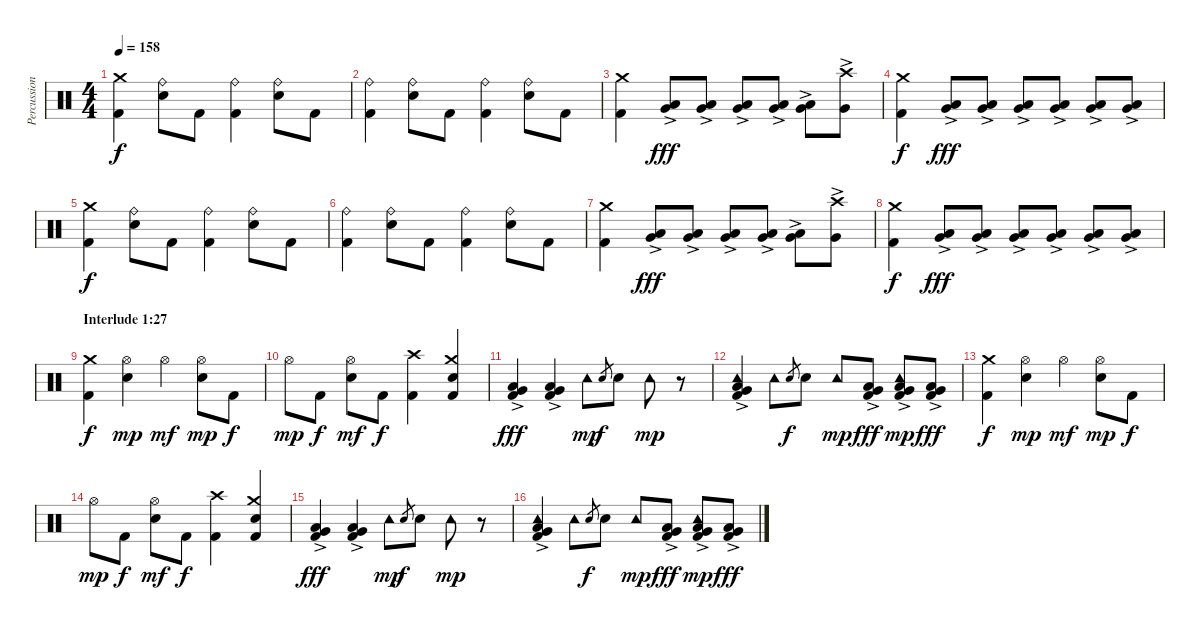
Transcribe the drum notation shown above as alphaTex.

\track ("Percussion" "Percussion") {instrument percussion}
\staff {score}
\articulation defaults
\ts (4 4)
\tempo 158
\clef neutral
\ks c
("Kick (hit) 2" "Crash medium (hit)").4{dy f} ("Electric Snare (hit)" "Ride (bell)").8 "Kick (hit) 2".8 ("Kick (hit) 2" "Ride (bell)").4 ("Electric Snare (hit)" "Ride (bell)").8 "Kick (hit) 2".8 |
("Kick (hit) 2" "Ride (bell)").4 ("Electric Snare (hit)" "Ride (bell)").8 "Kick (hit) 2".8 ("Kick (hit) 2" "Ride (bell)").4 ("Electric Snare (hit)" "Ride (bell)").8 "Kick (hit) 2".8 |
("Kick (hit) 2" "Crash medium (hit)").4 ("Low Tom (hit)"{ac} "Very Low Tom (hit)"{ac}).8{dy fff} ("Low Tom (hit)"{ac} "Very Low Tom (hit)"{ac}).8 ("Low Tom (hit)"{ac} "Very Low Tom (hit)"{ac}).8 ("Low Tom (hit)"{ac} "Very Low Tom (hit)"{ac}).8 ("Low Tom (hit)"{ac} "Very Low Tom (hit)"{ac}).8 ("Very Low Tom (hit)"{ac} "Crash high (hit)").8 |
("Kick (hit) 2" "Crash medium (hit)").4{dy f} ("Low Tom (hit)"{ac} "Very Low Tom (hit)"{ac}).8{dy fff} ("Low Tom (hit)"{ac} "Very Low Tom (hit)"{ac}).8 ("Low Tom (hit)"{ac} "Very Low Tom (hit)"{ac}).8 ("Low Tom (hit)"{ac} "Very Low Tom (hit)"{ac}).8 ("Low Tom (hit)"{ac} "Very Low Tom (hit)"{ac}).8 ("Low Tom (hit)"{ac} "Very Low Tom (hit)"{ac}).8 |
("Kick (hit) 2" "Crash medium (hit)").4{dy f} ("Electric Snare (hit)" "Ride (bell)").8 "Kick (hit) 2".8 ("Kick (hit) 2" "Ride (bell)").4 ("Electric Snare (hit)" "Ride (bell)").8 "Kick (hit) 2".8 |
("Kick (hit) 2" "Ride (bell)").4 ("Electric Snare (hit)" "Ride (bell)").8 "Kick (hit) 2".8 ("Kick (hit) 2" "Ride (bell)").4 ("Electric Snare (hit)" "Ride (bell)").8 "Kick (hit) 2".8 |
("Kick (hit) 2" "Crash medium (hit)").4 ("Low Tom (hit)"{ac} "Very Low Tom (hit)"{ac}).8{dy fff} ("Low Tom (hit)"{ac} "Very Low Tom (hit)"{ac}).8 ("Low Tom (hit)"{ac} "Very Low Tom (hit)"{ac}).8 ("Low Tom (hit)"{ac} "Very Low Tom (hit)"{ac}).8 ("Low Tom (hit)"{ac} "Very Low Tom (hit)"{ac}).8 ("Very Low Tom (hit)"{ac} "Crash high (hit)").8 |
("Kick (hit) 2" "Crash medium (hit)").4{dy f} ("Low Tom (hit)"{ac} "Very Low Tom (hit)"{ac}).8{dy fff} ("Low Tom (hit)"{ac} "Very Low Tom (hit)"{ac}).8 ("Low Tom (hit)"{ac} "Very Low Tom (hit)"{ac}).8 ("Low Tom (hit)"{ac} "Very Low Tom (hit)"{ac}).8 ("Low Tom (hit)"{ac} "Very Low Tom (hit)"{ac}).8 ("Low Tom (hit)"{ac} "Very Low Tom (hit)"{ac}).8 |
\section ("" "Interlude 1:27")
("Kick (hit) 2" "Crash medium (hit)").4{dy f} ("Electric Snare (hit)" "Hi-Hat (open)").4{dy mp} "Hi-Hat (open)".4{dy mf} ("Electric Snare (hit)" "Hi-Hat (open)").8{dy mp} "Kick (hit) 2".8{dy f} |
"Hi-Hat (open)".8{dy mp} "Kick (hit) 2".8{dy f} ("Electric Snare (hit)" "Hi-Hat (open)").8{dy mf} "Kick (hit) 2".8{dy f} ("Kick (hit) 2" "Crash high (hit)").4 ("Kick (hit) 2" "Electric Snare (hit)" "Crash medium (hit)").4 |
("Kick (hit) 2" "Very Low Tom (hit)"{ac} "Low Tom (hit)"{ac}).4{dy fff} ("Kick (hit) 2" "Very Low Tom (hit)"{ac} "Low Floor Tom (hit)"{ac}).4 "Tambourine (hit)".8{dy mp} "Electric Snare (hit)".8{gr dy f} "Electric Snare (hit)".8 "Tambourine (hit)".8{dy mp} r.8 |
("Kick (hit) 2" "Very Low Tom (hit)"{ac} "Low Tom (hit)"{ac} "Tambourine (hit)").4 "Tambourine (hit)".8 "Electric Snare (hit)".8{gr dy f} "Electric Snare (hit)".8 "Tambourine (hit)".8{dy mp} ("Kick (hit) 2" "Very Low Tom (hit)"{ac} "Low Floor Tom (hit)"{ac}).8{dy fff} ("Kick (hit) 2" "Very Low Tom (hit)"{ac} "Low Tom (hit)"{ac} "Tambourine (hit)").8{dy mp} ("Kick (hit) 2" "Very Low Tom (hit)"{ac} "Low Tom (hit)"{ac}).8{dy fff} |
("Kick (hit) 2" "Crash medium (hit)").4{dy f} ("Electric Snare (hit)" "Hi-Hat (open)").4{dy mp} "Hi-Hat (open)".4{dy mf} ("Electric Snare (hit)" "Hi-Hat (open)").8{dy mp} "Kick (hit) 2".8{dy f} |
"Hi-Hat (open)".8{dy mp} "Kick (hit) 2".8{dy f} ("Electric Snare (hit)" "Hi-Hat (open)").8{dy mf} "Kick (hit) 2".8{dy f} ("Kick (hit) 2" "Crash high (hit)").4 ("Kick (hit) 2" "Electric Snare (hit)" "Crash medium (hit)").4 |
("Kick (hit) 2" "Very Low Tom (hit)"{ac} "Low Tom (hit)"{ac}).4{dy fff} ("Kick (hit) 2" "Very Low Tom (hit)"{ac} "Low Floor Tom (hit)"{ac}).4 "Tambourine (hit)".8{dy mp} "Electric Snare (hit)".8{gr dy f} "Electric Snare (hit)".8 "Tambourine (hit)".8{dy mp} r.8 |
("Kick (hit) 2" "Very Low Tom (hit)"{ac} "Low Tom (hit)"{ac} "Tambourine (hit)").4 "Tambourine (hit)".8 "Electric Snare (hit)".8{gr dy f} "Electric Snare (hit)".8 "Tambourine (hit)".8{dy mp} ("Kick (hit) 2" "Very Low Tom (hit)"{ac} "Low Floor Tom (hit)"{ac}).8{dy fff} ("Kick (hit) 2" "Very Low Tom (hit)"{ac} "Low Tom (hit)"{ac} "Tambourine (hit)").8{dy mp} ("Kick (hit) 2" "Very Low Tom (hit)"{ac} "Low Tom (hit)"{ac}).8{dy fff}
